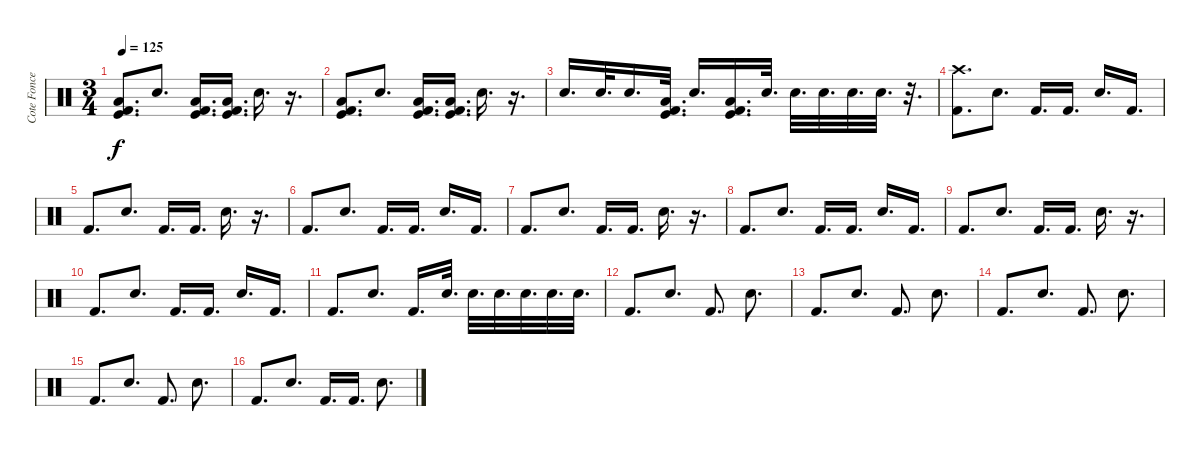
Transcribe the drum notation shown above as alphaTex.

\track ("Cote Foncea" "Cote Fonce") {instrument percussion}
\staff {score}
\articulation defaults
\ts (3 4)
\tempo 125
\clef neutral
\ks c
("Low Tom (hit)" "Kick (hit) 2" "Kick (hit)").8{d dy f} "Snare (hit) 2".8{d} ("Low Tom (hit)" "Kick (hit) 2" "Kick (hit)").16{d} ("Low Tom (hit)" "Kick (hit) 2" "Kick (hit)").16{d} "Snare (hit) 2".16{d} r.16{d} |
("Low Tom (hit)" "Kick (hit) 2" "Kick (hit)").8{d} "Snare (hit) 2".8{d} ("Low Tom (hit)" "Kick (hit) 2" "Kick (hit)").16{d} ("Low Tom (hit)" "Kick (hit) 2" "Kick (hit)").16{d} "Snare (hit) 2".16{d} r.16{d} |
"Snare (hit) 2".16{d} "Snare (hit) 2".32{d} "Snare (hit) 2".16{d} ("Low Tom (hit)" "Kick (hit)" "Kick (hit) 2").32{d} "Snare (hit) 2".16{d} ("Low Tom (hit)" "Kick (hit)" "Kick (hit) 2").16{d} "Snare (hit) 2".32{d} "Snare (hit) 2".32{d} "Snare (hit) 2".32{d} "Snare (hit) 2".32{d} "Snare (hit) 2".32{d} r.32{d} |
("Crash high (hit)" "Kick (hit) 2").8{d volume 16} "Snare (hit) 2".8{d volume 10} "Kick (hit) 2".16{d volume 16} "Kick (hit) 2".16{d} "Snare (hit) 2".16{d volume 10} "Kick (hit) 2".16{d volume 16} |
"Kick (hit) 2".8{d} "Snare (hit) 2".8{d volume 10} "Kick (hit) 2".16{d volume 16} "Kick (hit) 2".16{d} "Snare (hit) 2".16{d volume 10} r.16{d} |
"Kick (hit) 2".8{d volume 16} "Snare (hit) 2".8{d volume 10} "Kick (hit) 2".16{d volume 16} "Kick (hit) 2".16{d} "Snare (hit) 2".16{d volume 10} "Kick (hit) 2".16{d volume 16} |
"Kick (hit) 2".8{d} "Snare (hit) 2".8{d volume 10} "Kick (hit) 2".16{d volume 16} "Kick (hit) 2".16{d} "Snare (hit) 2".16{d volume 10} r.16{d} |
"Kick (hit) 2".8{d volume 16} "Snare (hit) 2".8{d volume 10} "Kick (hit) 2".16{d volume 16} "Kick (hit) 2".16{d} "Snare (hit) 2".16{d volume 10} "Kick (hit) 2".16{d volume 16} |
"Kick (hit) 2".8{d} "Snare (hit) 2".8{d volume 10} "Kick (hit) 2".16{d volume 16} "Kick (hit) 2".16{d} "Snare (hit) 2".16{d volume 10} r.16{d} |
"Kick (hit) 2".8{d volume 16} "Snare (hit) 2".8{d volume 10} "Kick (hit) 2".16{d volume 16} "Kick (hit) 2".16{d} "Snare (hit) 2".16{d volume 10} "Kick (hit) 2".16{d volume 16} |
"Kick (hit) 2".8{d volume 16} "Snare (hit) 2".8{d volume 10} "Kick (hit) 2".16{d volume 16} "Snare (hit) 2".32{d} "Snare (hit) 2".32{d} "Snare (hit) 2".32{d} "Snare (hit) 2".32{d} "Snare (hit) 2".32{d} "Snare (hit) 2".32{d} |
"Kick (hit) 2".8{d} "Snare (hit) 2".8{d} "Kick (hit) 2".8{d} "Snare (hit) 2".8{d} |
"Kick (hit) 2".8{d} "Snare (hit) 2".8{d} "Kick (hit) 2".8{d} "Snare (hit) 2".8{d} |
"Kick (hit) 2".8{d} "Snare (hit) 2".8{d} "Kick (hit) 2".8{d} "Snare (hit) 2".8{d} |
"Kick (hit) 2".8{d} "Snare (hit) 2".8{d} "Kick (hit) 2".8{d} "Snare (hit) 2".8{d} |
"Kick (hit) 2".8{d} "Snare (hit) 2".8{d} "Kick (hit) 2".16{d} "Kick (hit) 2".16{d} "Snare (hit) 2".8{d}
